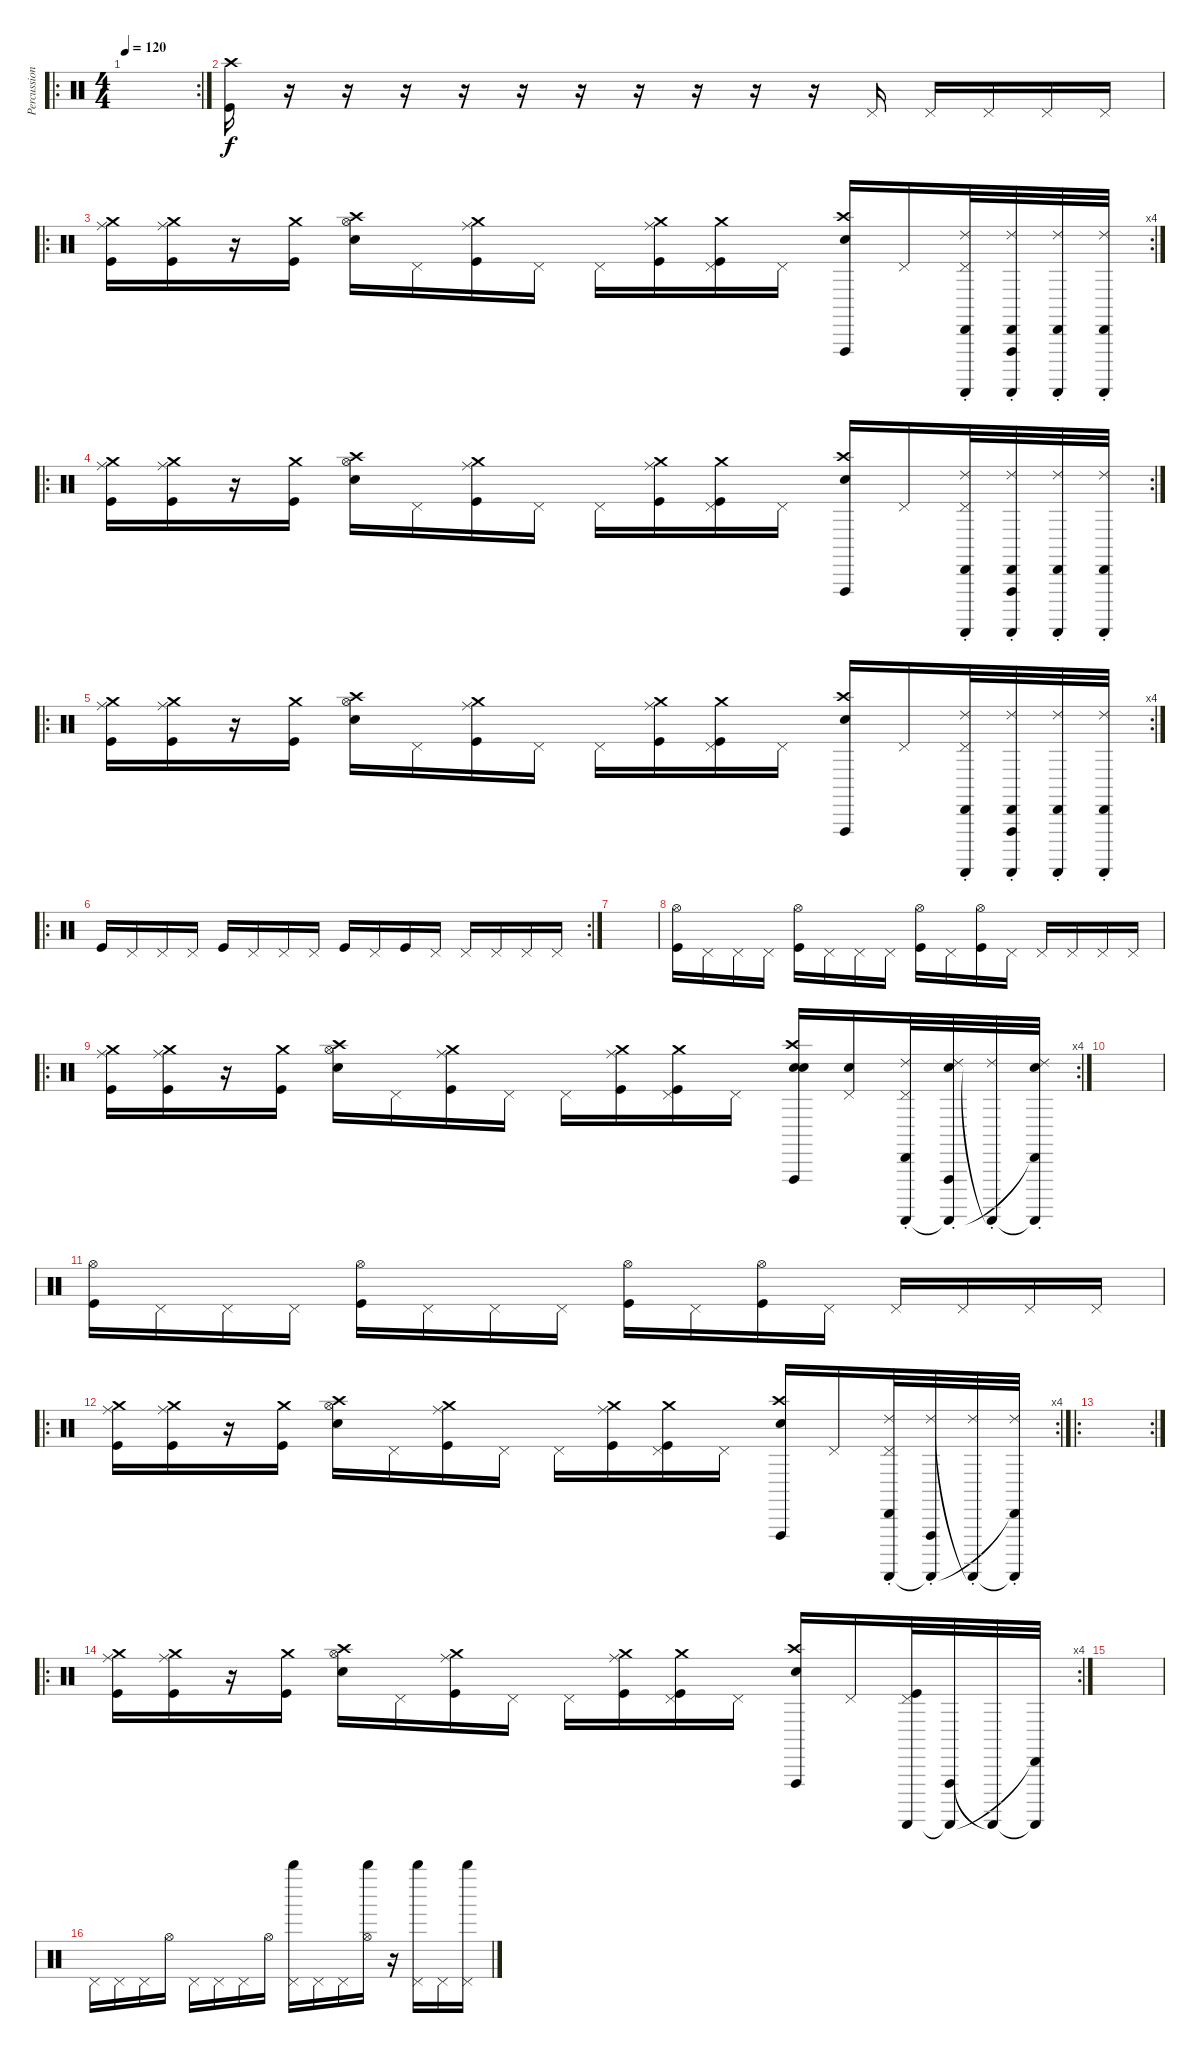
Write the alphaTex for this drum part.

\track ("Percussions" "Percussion") {instrument percussion}
\staff {score}
\articulation defaults
\ro
\rc 2
\ts (4 4)
\tempo 120
\clef neutral
\ks c
|
("Crash high (hit)" "Kick (hit)").16 r.16 r.16 r.16 r.16 r.16 r.16 r.16 r.16 r.16 r.16 "Pedal Hi-Hat (hit)".16 "Pedal Hi-Hat (hit)".16 "Pedal Hi-Hat (hit)".16 "Pedal Hi-Hat (hit)".16 "Pedal Hi-Hat (hit)".16 |
\ro
\rc 4
("Ride (middle)" "Crash medium (hit)" "Kick (hit)").16 ("Ride (middle)" "Crash medium (hit)" "Kick (hit)").16 r.16 ("Crash medium (hit)" "Kick (hit)").16 ("Crash high (hit)" "Electric Snare (hit)" "Hi-Hat (open)").16 "Pedal Hi-Hat (hit)".16 ("Ride (middle)" "Crash medium (hit)" "Kick (hit)").16 "Pedal Hi-Hat (hit)".16 "Pedal Hi-Hat (hit)".16 ("Ride (middle)" "Crash medium (hit)" "Kick (hit)").16 ("Pedal Hi-Hat (hit)" "Crash medium (hit)" "Kick (hit)").16 "Pedal Hi-Hat (hit)".16 ("Vibraslap (hit)" "Electric Snare (hit)" "Crash high (hit)").16 "Pedal Hi-Hat (hit)".16 ("Pedal Hi-Hat (hit)" "Ride (choke) 2" "Guiro (scrap-return)" "Cabasa (hit)").32 ("Vibraslap (hit)" "Ride (choke) 2" "Guiro (scrap-return)" "Cabasa (hit)").32 ("Ride (choke) 2" "Guiro (scrap-return)" "Cabasa (hit)").32 ("Ride (choke) 2" "Guiro (scrap-return)" "Cabasa (hit)").32 |
\ro
\rc 2
("Ride (middle)" "Crash medium (hit)" "Kick (hit)").16 ("Ride (middle)" "Crash medium (hit)" "Kick (hit)").16 r.16 ("Crash medium (hit)" "Kick (hit)").16 ("Crash high (hit)" "Electric Snare (hit)" "Hi-Hat (open)").16 "Pedal Hi-Hat (hit)".16 ("Ride (middle)" "Crash medium (hit)" "Kick (hit)").16 "Pedal Hi-Hat (hit)".16 "Pedal Hi-Hat (hit)".16 ("Ride (middle)" "Crash medium (hit)" "Kick (hit)").16 ("Pedal Hi-Hat (hit)" "Crash medium (hit)" "Kick (hit)").16 "Pedal Hi-Hat (hit)".16 ("Vibraslap (hit)" "Electric Snare (hit)" "Crash high (hit)").16 "Pedal Hi-Hat (hit)".16 ("Pedal Hi-Hat (hit)" "Ride (choke) 2" "Guiro (scrap-return)" "Cabasa (hit)").32 ("Vibraslap (hit)" "Ride (choke) 2" "Guiro (scrap-return)" "Cabasa (hit)").32 ("Ride (choke) 2" "Guiro (scrap-return)" "Cabasa (hit)").32 ("Ride (choke) 2" "Guiro (scrap-return)" "Cabasa (hit)").32 |
\ro
\rc 4
("Ride (middle)" "Crash medium (hit)" "Kick (hit)").16 ("Ride (middle)" "Crash medium (hit)" "Kick (hit)").16 r.16 ("Crash medium (hit)" "Kick (hit)").16 ("Crash high (hit)" "Electric Snare (hit)" "Hi-Hat (open)").16 "Pedal Hi-Hat (hit)".16 ("Ride (middle)" "Crash medium (hit)" "Kick (hit)").16 "Pedal Hi-Hat (hit)".16 "Pedal Hi-Hat (hit)".16 ("Ride (middle)" "Crash medium (hit)" "Kick (hit)").16 ("Pedal Hi-Hat (hit)" "Crash medium (hit)" "Kick (hit)").16 "Pedal Hi-Hat (hit)".16 ("Vibraslap (hit)" "Electric Snare (hit)" "Crash high (hit)").16 "Pedal Hi-Hat (hit)".16 ("Pedal Hi-Hat (hit)" "Ride (choke) 2" "Guiro (scrap-return)" "Cabasa (hit)").32 ("Vibraslap (hit)" "Ride (choke) 2" "Guiro (scrap-return)" "Cabasa (hit)").32 ("Ride (choke) 2" "Guiro (scrap-return)" "Cabasa (hit)").32 ("Ride (choke) 2" "Guiro (scrap-return)" "Cabasa (hit)").32 |
\ro
\rc 2 "Kick (hit)".16 "Pedal Hi-Hat (hit)".16 "Pedal Hi-Hat (hit)".16 "Pedal Hi-Hat (hit)".16 "Kick (hit)".16 "Pedal Hi-Hat (hit)".16 "Pedal Hi-Hat (hit)".16 "Pedal Hi-Hat (hit)".16 "Kick (hit)".16 "Pedal Hi-Hat (hit)".16 "Kick (hit)".16 "Pedal Hi-Hat (hit)".16 "Pedal Hi-Hat (hit)".16 "Pedal Hi-Hat (hit)".16 "Pedal Hi-Hat (hit)".16 "Pedal Hi-Hat (hit)".16
|
|
("Hi-Hat (open)" "Kick (hit)").16 "Pedal Hi-Hat (hit)".16 "Pedal Hi-Hat (hit)".16 "Pedal Hi-Hat (hit)".16 ("Hi-Hat (open)" "Kick (hit)").16 "Pedal Hi-Hat (hit)".16 "Pedal Hi-Hat (hit)".16 "Pedal Hi-Hat (hit)".16 ("Hi-Hat (open)" "Kick (hit)").16 "Pedal Hi-Hat (hit)".16 ("Hi-Hat (open)" "Kick (hit)").16 "Pedal Hi-Hat (hit)".16 "Pedal Hi-Hat (hit)".16 "Pedal Hi-Hat (hit)".16 "Pedal Hi-Hat (hit)".16 "Pedal Hi-Hat (hit)".16 |
\ro
\rc 4
("Ride (middle)" "Crash medium (hit)" "Kick (hit)").16 ("Ride (middle)" "Crash medium (hit)" "Kick (hit)").16 r.16 ("Crash medium (hit)" "Kick (hit)").16 ("Crash high (hit)" "Electric Snare (hit)" "Hi-Hat (open)").16 "Pedal Hi-Hat (hit)".16 ("Ride (middle)" "Crash medium (hit)" "Kick (hit)").16 "Pedal Hi-Hat (hit)".16 "Pedal Hi-Hat (hit)".16 ("Ride (middle)" "Crash medium (hit)" "Kick (hit)").16 ("Pedal Hi-Hat (hit)" "Crash medium (hit)" "Kick (hit)").16 "Pedal Hi-Hat (hit)".16 ("Vibraslap (hit)" "Electric Snare (hit)" "Crash high (hit)" "Electric Snare (hit)").16 ("Pedal Hi-Hat (hit)" "Electric Snare (hit)").16 ("Pedal Hi-Hat (hit)" "Ride (choke) 2" "Guiro (scrap-return)" "Cabasa (hit)").32 ("Vibraslap (hit)" "Ride (choke) 2" "Guiro (scrap-return)"{t} "Electric Snare (hit)").32 ("Ride (choke) 2" "Guiro (scrap-return)"{t}).32 ("Ride (choke) 2" "Guiro (scrap-return)"{t} "Cabasa (hit)"{t} "Electric Snare (hit)").32 |
|
("Hi-Hat (open)" "Kick (hit)").16 "Pedal Hi-Hat (hit)".16 "Pedal Hi-Hat (hit)".16 "Pedal Hi-Hat (hit)".16 ("Hi-Hat (open)" "Kick (hit)").16 "Pedal Hi-Hat (hit)".16 "Pedal Hi-Hat (hit)".16 "Pedal Hi-Hat (hit)".16 ("Hi-Hat (open)" "Kick (hit)").16 "Pedal Hi-Hat (hit)".16 ("Hi-Hat (open)" "Kick (hit)").16 "Pedal Hi-Hat (hit)".16 "Pedal Hi-Hat (hit)".16 "Pedal Hi-Hat (hit)".16 "Pedal Hi-Hat (hit)".16 "Pedal Hi-Hat (hit)".16 |
\ro
\rc 4
("Ride (middle)" "Crash medium (hit)" "Kick (hit)").16 ("Ride (middle)" "Crash medium (hit)" "Kick (hit)").16 r.16 ("Crash medium (hit)" "Kick (hit)").16 ("Crash high (hit)" "Electric Snare (hit)" "Hi-Hat (open)").16 "Pedal Hi-Hat (hit)".16 ("Ride (middle)" "Crash medium (hit)" "Kick (hit)").16 "Pedal Hi-Hat (hit)".16 "Pedal Hi-Hat (hit)".16 ("Ride (middle)" "Crash medium (hit)" "Kick (hit)").16 ("Pedal Hi-Hat (hit)" "Crash medium (hit)" "Kick (hit)").16 "Pedal Hi-Hat (hit)".16 ("Vibraslap (hit)" "Electric Snare (hit)" "Crash high (hit)").16 "Pedal Hi-Hat (hit)".16 ("Pedal Hi-Hat (hit)" "Ride (choke) 2" "Guiro (scrap-return)" "Cabasa (hit)").32 ("Vibraslap (hit)" "Ride (choke) 2" "Guiro (scrap-return)"{t}).32 ("Ride (choke) 2" "Guiro (scrap-return)"{t}).32 ("Ride (choke) 2" "Guiro (scrap-return)"{t} "Cabasa (hit)"{t}).32 |
\ro
\rc 2
|
\ro
\rc 4
("Ride (middle)" "Crash medium (hit)" "Kick (hit)").16 ("Ride (middle)" "Crash medium (hit)" "Kick (hit)").16 r.16 ("Crash medium (hit)" "Kick (hit)").16 ("Crash high (hit)" "Electric Snare (hit)" "Hi-Hat (open)").16 "Pedal Hi-Hat (hit)".16 ("Ride (middle)" "Crash medium (hit)" "Kick (hit)").16 "Pedal Hi-Hat (hit)".16 "Pedal Hi-Hat (hit)".16 ("Ride (middle)" "Crash medium (hit)" "Kick (hit)").16 ("Pedal Hi-Hat (hit)" "Crash medium (hit)" "Kick (hit)").16 "Pedal Hi-Hat (hit)".16 ("Vibraslap (hit)" "Electric Snare (hit)" "Crash high (hit)").16 "Pedal Hi-Hat (hit)".16 ("Pedal Hi-Hat (hit)" "Guiro (scrap-return)" "Kick (hit)").32 ("Vibraslap (hit)" "Guiro (scrap-return)"{t}).32 "Guiro (scrap-return)"{t}.32 ("Guiro (scrap-return)"{t} "Cabasa (hit)"{t}).32 |
|
"Pedal Hi-Hat (hit)".16 "Pedal Hi-Hat (hit)".16 "Pedal Hi-Hat (hit)".16 "Hi-Hat (open)".16 "Pedal Hi-Hat (hit)".16 "Pedal Hi-Hat (hit)".16 "Pedal Hi-Hat (hit)".16 "Hi-Hat (open)".16 ("Pedal Hi-Hat (hit)" "Whistle high (hit)").16 "Pedal Hi-Hat (hit)".16 "Pedal Hi-Hat (hit)".16 ("Hi-Hat (open)" "Whistle high (hit)").16 r.16 ("Pedal Hi-Hat (hit)" "Whistle high (hit)").16 "Pedal Hi-Hat (hit)".16 ("Pedal Hi-Hat (hit)" "Whistle high (hit)").16
